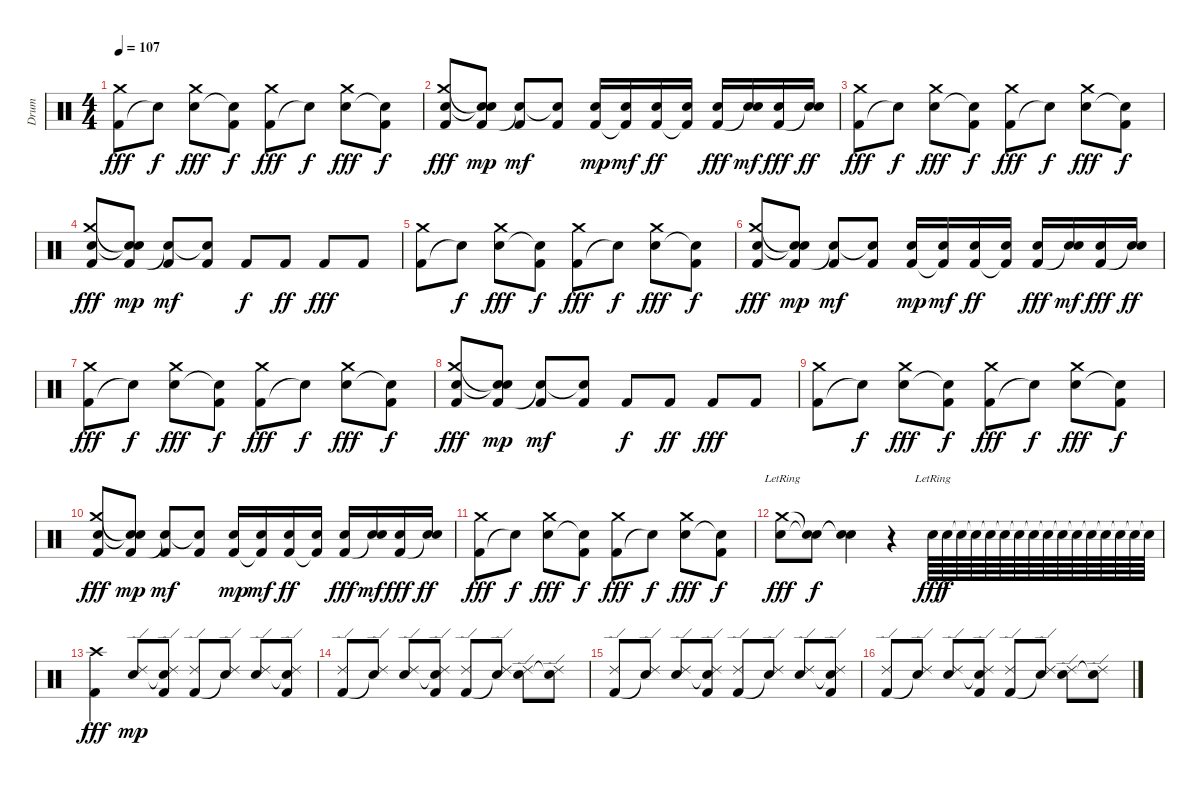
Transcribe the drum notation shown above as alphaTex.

\track ("Drum" "Drum") {instrument percussion}
\staff {score}
\articulation defaults
\ts (4 4)
\tempo 107
\clef neutral
\ks c
("Kick (hit) 2" "Crash medium (hit)").8{dy fff} "Snare (hit)"{t}.8{dy f} ("Electric Snare (hit)" "Crash medium (hit)").8{dy fff} ("Snare (hit)"{t} "Kick (hit) 2").8{dy f} ("Kick (hit) 2" "Crash medium (hit)").8{dy fff} "Snare (hit)"{t}.8{dy f} ("Electric Snare (hit)" "Crash medium (hit)").8{dy fff} ("Snare (hit)"{t} "Kick (hit) 2").8{dy f} |
("Electric Snare (hit)" "Kick (hit) 2" "Crash medium (hit)").8{txt "" dy fff} ("Snare (hit)"{t} "Kick (hit) 2" "Snare (hit)"{t}).8{dy mp} ("Kick (hit) 2" "Snare (hit)"{t}).8{dy mf} ("Kick (hit) 2" "Snare (hit)"{t}).8 ("Electric Snare (hit)" "Kick (hit) 2").16{dy mp} ("Electric Snare (hit)" "Kick (hit) 2"{t}).16{dy mf} ("Electric Snare (hit)" "Kick (hit) 2").16{dy ff} ("Electric Snare (hit)" "Kick (hit) 2"{t}).16 ("Electric Snare (hit)" "Kick (hit) 2").16{dy fff} ("Electric Snare (hit)" "Snare (hit)"{t}).16{dy mf} ("Electric Snare (hit)" "Kick (hit) 2").16{dy fff} ("Electric Snare (hit)" "Snare (hit)"{t}).16{dy ff} |
("Kick (hit) 2" "Crash medium (hit)").8{dy fff} "Snare (hit)"{t}.8{dy f} ("Electric Snare (hit)" "Crash medium (hit)").8{dy fff} ("Snare (hit)"{t} "Kick (hit) 2").8{dy f} ("Kick (hit) 2" "Crash medium (hit)").8{dy fff} "Snare (hit)"{t}.8{dy f} ("Electric Snare (hit)" "Crash medium (hit)").8{dy fff} ("Snare (hit)"{t} "Kick (hit) 2").8{dy f} |
("Electric Snare (hit)" "Kick (hit) 2" "Crash medium (hit)").8{txt "" dy fff} ("Snare (hit)"{t} "Kick (hit) 2" "Snare (hit)"{t}).8{dy mp} ("Kick (hit) 2" "Snare (hit)"{t}).8{dy mf} ("Kick (hit) 2" "Snare (hit)"{t}).8 "Kick (hit) 2".8{dy f} "Kick (hit) 2".8{dy ff} "Kick (hit) 2".8{dy fff} "Kick (hit) 2".8 |
("Kick (hit) 2" "Crash medium (hit)").8 "Snare (hit)"{t}.8{dy f} ("Electric Snare (hit)" "Crash medium (hit)").8{dy fff} ("Snare (hit)"{t} "Kick (hit) 2").8{dy f} ("Kick (hit) 2" "Crash medium (hit)").8{dy fff} "Snare (hit)"{t}.8{dy f} ("Electric Snare (hit)" "Crash medium (hit)").8{dy fff} ("Snare (hit)"{t} "Kick (hit) 2").8{dy f} |
("Electric Snare (hit)" "Kick (hit) 2" "Crash medium (hit)").8{txt "" dy fff} ("Snare (hit)"{t} "Kick (hit) 2" "Snare (hit)"{t}).8{dy mp} ("Kick (hit) 2" "Snare (hit)"{t}).8{dy mf} ("Kick (hit) 2" "Snare (hit)"{t}).8 ("Electric Snare (hit)" "Kick (hit) 2").16{dy mp} ("Electric Snare (hit)" "Kick (hit) 2"{t}).16{dy mf} ("Electric Snare (hit)" "Kick (hit) 2").16{dy ff} ("Electric Snare (hit)" "Kick (hit) 2"{t}).16 ("Electric Snare (hit)" "Kick (hit) 2").16{dy fff} ("Electric Snare (hit)" "Snare (hit)"{t}).16{dy mf} ("Electric Snare (hit)" "Kick (hit) 2").16{dy fff} ("Electric Snare (hit)" "Snare (hit)"{t}).16{dy ff} |
("Kick (hit) 2" "Crash medium (hit)").8{dy fff} "Snare (hit)"{t}.8{dy f} ("Electric Snare (hit)" "Crash medium (hit)").8{dy fff} ("Snare (hit)"{t} "Kick (hit) 2").8{dy f} ("Kick (hit) 2" "Crash medium (hit)").8{dy fff} "Snare (hit)"{t}.8{dy f} ("Electric Snare (hit)" "Crash medium (hit)").8{dy fff} ("Snare (hit)"{t} "Kick (hit) 2").8{dy f} |
("Electric Snare (hit)" "Kick (hit) 2" "Crash medium (hit)").8{txt "" dy fff} ("Snare (hit)"{t} "Kick (hit) 2" "Snare (hit)"{t}).8{dy mp} ("Kick (hit) 2" "Snare (hit)"{t}).8{dy mf} ("Kick (hit) 2" "Snare (hit)"{t}).8 "Kick (hit) 2".8{dy f} "Kick (hit) 2".8{dy ff} "Kick (hit) 2".8{dy fff} "Kick (hit) 2".8 |
("Kick (hit) 2" "Crash medium (hit)").8 "Snare (hit)"{t}.8{dy f} ("Electric Snare (hit)" "Crash medium (hit)").8{dy fff} ("Snare (hit)"{t} "Kick (hit) 2").8{dy f} ("Kick (hit) 2" "Crash medium (hit)").8{dy fff} "Snare (hit)"{t}.8{dy f} ("Electric Snare (hit)" "Crash medium (hit)").8{dy fff} ("Snare (hit)"{t} "Kick (hit) 2").8{dy f} |
("Electric Snare (hit)" "Kick (hit) 2" "Crash medium (hit)").8{txt "" dy fff} ("Snare (hit)"{t} "Kick (hit) 2" "Snare (hit)"{t}).8{dy mp} ("Kick (hit) 2" "Snare (hit)"{t}).8{dy mf} ("Kick (hit) 2" "Snare (hit)"{t}).8 ("Electric Snare (hit)" "Kick (hit) 2").16{dy mp} ("Electric Snare (hit)" "Kick (hit) 2"{t}).16{dy mf} ("Electric Snare (hit)" "Kick (hit) 2").16{dy ff} ("Electric Snare (hit)" "Kick (hit) 2"{t}).16 ("Electric Snare (hit)" "Kick (hit) 2").16{dy fff} ("Electric Snare (hit)" "Snare (hit)"{t}).16{dy mf} ("Electric Snare (hit)" "Kick (hit) 2").16{dy fff} ("Electric Snare (hit)" "Snare (hit)"{t}).16{dy ff} |
("Kick (hit) 2" "Crash medium (hit)").8{dy fff} "Snare (hit)"{t}.8{dy f} ("Electric Snare (hit)" "Crash medium (hit)").8{dy fff} ("Snare (hit)"{t} "Kick (hit) 2").8{dy f} ("Kick (hit) 2" "Crash medium (hit)").8{dy fff} "Snare (hit)"{t}.8{dy f} ("Electric Snare (hit)" "Crash medium (hit)").8{dy fff} ("Snare (hit)"{t} "Kick (hit) 2").8{dy f} |
("Electric Snare (hit)"{lr} "Crash medium (hit)"{lr}).8{txt "" dy fff} ("Snare (hit)"{t} "Snare (hit)"{t}).8{dy f} ("Snare (hit)"{t} "Snare (hit)"{t}).4 r.4 "Electric Snare (hit)"{lr}.64{dy fff} "Electric Snare (hit)".64{dy f} "Snare (hit)"{t}.64 "Snare (hit)"{t}.64 "Snare (hit)"{t}.64 "Snare (hit)"{t}.64 "Snare (hit)"{t}.64 "Snare (hit)"{t}.64 "Snare (hit)"{t}.64 "Snare (hit)"{t}.64 "Snare (hit)"{t}.64 "Snare (hit)"{t}.64 "Snare (hit)"{t}.64 "Snare (hit)"{t}.64 "Snare (hit)"{t}.64 "Snare (hit)"{t}.64 |
\section ("" "")
("Kick (hit) 2" "Crash high (hit)").4{txt "" dy fff} ("Electric Snare (hit)" "Ride (edge) 2").8{dy mp} ("Snare (hit)"{t} "Kick (hit) 2" "Ride (edge) 2").8 ("Kick (hit) 2" "Ride (edge) 2").8 ("Snare (hit)"{t} "Ride (edge) 2").8 ("Electric Snare (hit)" "Ride (edge) 2").8 ("Snare (hit)"{t} "Kick (hit) 2" "Ride (edge) 2").8 |
("Kick (hit) 2" "Ride (edge) 2").8 ("Snare (hit)"{t} "Ride (edge) 2").8 ("Electric Snare (hit)" "Ride (edge) 2").8 ("Snare (hit)"{t} "Kick (hit) 2" "Ride (edge) 2").8 ("Kick (hit) 2" "Ride (edge) 2").8 ("Snare (hit)"{t} "Ride (edge) 2").8 ("Electric Snare (hit)" "Ride (edge) 2").8 ("Snare (hit)"{t} "Ride (edge) 2").8 |
("Kick (hit) 2" "Ride (edge) 2").8 ("Snare (hit)"{t} "Ride (edge) 2").8 ("Electric Snare (hit)" "Ride (edge) 2").8 ("Snare (hit)"{t} "Kick (hit) 2" "Ride (edge) 2").8 ("Kick (hit) 2" "Ride (edge) 2").8 ("Snare (hit)"{t} "Ride (edge) 2").8 ("Electric Snare (hit)" "Ride (edge) 2").8 ("Snare (hit)"{t} "Kick (hit) 2" "Ride (edge) 2").8 |
("Kick (hit) 2" "Ride (edge) 2").8 ("Snare (hit)"{t} "Ride (edge) 2").8 ("Electric Snare (hit)" "Ride (edge) 2").8 ("Snare (hit)"{t} "Kick (hit) 2" "Ride (edge) 2").8 ("Kick (hit) 2" "Ride (edge) 2").8 ("Snare (hit)"{t} "Ride (edge) 2").8 ("Electric Snare (hit)" "Ride (edge) 2").8 ("Snare (hit)"{t} "Ride (edge) 2").8
